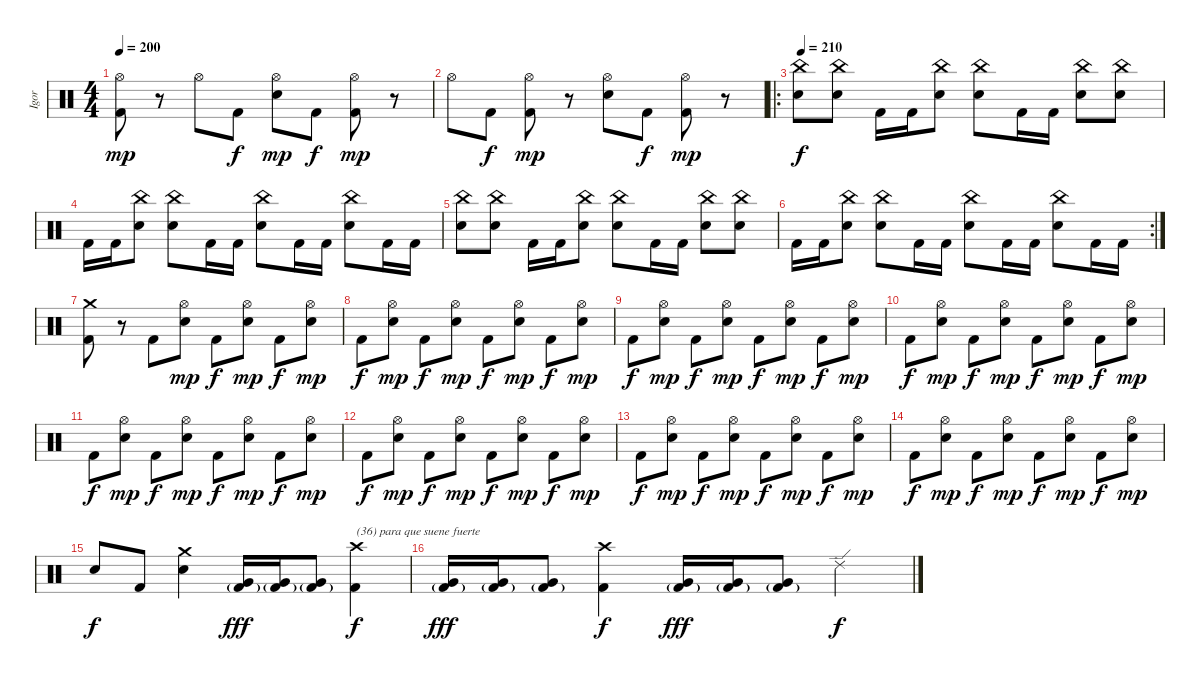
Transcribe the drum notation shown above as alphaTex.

\track ("Igor" "Igor") {instrument percussion}
\staff {score}
\articulation defaults
\ts (4 4)
\tempo 200
\clef neutral
\ks c
("Hi-Hat (open)" "Kick (hit) 2").8{dy mp} r.8 "Hi-Hat (open)".8 "Kick (hit) 2".8{dy f} ("Hi-Hat (open)" "Electric Snare (hit)").8{dy mp} "Kick (hit) 2".8{dy f} ("Hi-Hat (open)" "Kick (hit) 2").8{dy mp} r.8 |
"Hi-Hat (open)".8 "Kick (hit) 2".8{dy f} ("Hi-Hat (open)" "Kick (hit) 2").8{dy mp} r.8 ("Hi-Hat (open)" "Electric Snare (hit)").8 "Kick (hit) 2".8{dy f} ("Hi-Hat (open)" "Kick (hit) 2").8{dy mp} r.8 |
\ro
\tempo 210
("China (hit)" "Electric Snare (hit)").8{dy f} ("China (hit)" "Electric Snare (hit)").8 "Kick (hit) 2".16 "Kick (hit) 2".16 ("China (hit)" "Electric Snare (hit)").8 ("China (hit)" "Electric Snare (hit)").8 "Kick (hit) 2".16 "Kick (hit) 2".16 ("China (hit)" "Electric Snare (hit)").8 ("China (hit)" "Electric Snare (hit)").8 |
"Kick (hit) 2".16 "Kick (hit) 2".16 ("China (hit)" "Electric Snare (hit)").8 ("China (hit)" "Electric Snare (hit)").8 "Kick (hit) 2".16 "Kick (hit) 2".16 ("China (hit)" "Electric Snare (hit)").8 "Kick (hit) 2".16 "Kick (hit) 2".16 ("China (hit)" "Electric Snare (hit)").8 "Kick (hit) 2".16 "Kick (hit) 2".16 |
("China (hit)" "Electric Snare (hit)").8 ("China (hit)" "Electric Snare (hit)").8 "Kick (hit) 2".16 "Kick (hit) 2".16 ("China (hit)" "Electric Snare (hit)").8 ("China (hit)" "Electric Snare (hit)").8 "Kick (hit) 2".16 "Kick (hit) 2".16 ("China (hit)" "Electric Snare (hit)").8 ("China (hit)" "Electric Snare (hit)").8 |
\rc 2 "Kick (hit) 2".16 "Kick (hit) 2".16
("China (hit)" "Electric Snare (hit)").8 ("China (hit)" "Electric Snare (hit)").8 "Kick (hit) 2".16 "Kick (hit) 2".16 ("China (hit)" "Electric Snare (hit)").8 "Kick (hit) 2".16 "Kick (hit) 2".16 ("China (hit)" "Electric Snare (hit)").8 "Kick (hit) 2".16 "Kick (hit) 2".16 |
("Crash medium (hit)" "Kick (hit) 2").8 r.8 "Kick (hit) 2".8 ("Hi-Hat (open)" "Electric Snare (hit)").8{dy mp} "Kick (hit) 2".8{dy f} ("Hi-Hat (open)" "Electric Snare (hit)").8{dy mp} "Kick (hit) 2".8{dy f} ("Hi-Hat (open)" "Electric Snare (hit)").8{dy mp} |
"Kick (hit) 2".8{dy f} ("Hi-Hat (open)" "Electric Snare (hit)").8{dy mp} "Kick (hit) 2".8{dy f} ("Hi-Hat (open)" "Electric Snare (hit)").8{dy mp} "Kick (hit) 2".8{dy f} ("Hi-Hat (open)" "Electric Snare (hit)").8{dy mp} "Kick (hit) 2".8{dy f} ("Hi-Hat (open)" "Electric Snare (hit)").8{dy mp} |
"Kick (hit) 2".8{dy f} ("Hi-Hat (open)" "Electric Snare (hit)").8{dy mp} "Kick (hit) 2".8{dy f} ("Hi-Hat (open)" "Electric Snare (hit)").8{dy mp} "Kick (hit) 2".8{dy f} ("Hi-Hat (open)" "Electric Snare (hit)").8{dy mp} "Kick (hit) 2".8{dy f} ("Hi-Hat (open)" "Electric Snare (hit)").8{dy mp} |
"Kick (hit) 2".8{dy f} ("Hi-Hat (open)" "Electric Snare (hit)").8{dy mp} "Kick (hit) 2".8{dy f} ("Hi-Hat (open)" "Electric Snare (hit)").8{dy mp} "Kick (hit) 2".8{dy f} ("Hi-Hat (open)" "Electric Snare (hit)").8{dy mp} "Kick (hit) 2".8{dy f} ("Hi-Hat (open)" "Electric Snare (hit)").8{dy mp} |
"Kick (hit) 2".8{dy f} ("Hi-Hat (open)" "Electric Snare (hit)").8{dy mp} "Kick (hit) 2".8{dy f} ("Hi-Hat (open)" "Electric Snare (hit)").8{dy mp} "Kick (hit) 2".8{dy f} ("Hi-Hat (open)" "Electric Snare (hit)").8{dy mp} "Kick (hit) 2".8{dy f} ("Hi-Hat (open)" "Electric Snare (hit)").8{dy mp} |
"Kick (hit) 2".8{dy f} ("Hi-Hat (open)" "Electric Snare (hit)").8{dy mp} "Kick (hit) 2".8{dy f} ("Hi-Hat (open)" "Electric Snare (hit)").8{dy mp} "Kick (hit) 2".8{dy f} ("Hi-Hat (open)" "Electric Snare (hit)").8{dy mp} "Kick (hit) 2".8{dy f} ("Hi-Hat (open)" "Electric Snare (hit)").8{dy mp} |
"Kick (hit) 2".8{dy f} ("Hi-Hat (open)" "Electric Snare (hit)").8{dy mp} "Kick (hit) 2".8{dy f} ("Hi-Hat (open)" "Electric Snare (hit)").8{dy mp} "Kick (hit) 2".8{dy f} ("Hi-Hat (open)" "Electric Snare (hit)").8{dy mp} "Kick (hit) 2".8{dy f} ("Hi-Hat (open)" "Electric Snare (hit)").8{dy mp} |
"Kick (hit) 2".8{dy f} ("Hi-Hat (open)" "Electric Snare (hit)").8{dy mp} "Kick (hit) 2".8{dy f} ("Hi-Hat (open)" "Electric Snare (hit)").8{dy mp} "Kick (hit) 2".8{dy f} ("Hi-Hat (open)" "Electric Snare (hit)").8{dy mp} "Kick (hit) 2".8{dy f} ("Hi-Hat (open)" "Electric Snare (hit)").8{dy mp} |
"Electric Snare (hit)".8{dy f} "Kick (hit) 2".8 ("Crash medium (hit)" "Electric Snare (hit)").4 ("Very Low Tom (hit)" "Kick (hit) 2"{g}).16{dy fff} ("Very Low Tom (hit)" "Kick (hit) 2"{g}).16 ("Very Low Tom (hit)" "Kick (hit) 2"{g}).8 ("Crash high (hit)" "Kick (hit) 2").4{txt "(36) para que suene fuerte" dy f} |
("Very Low Tom (hit)" "Kick (hit) 2"{g}).16{dy fff} ("Very Low Tom (hit)" "Kick (hit) 2"{g}).16 ("Very Low Tom (hit)" "Kick (hit) 2"{g}).8 ("Crash high (hit)" "Kick (hit) 2").4{dy f} ("Very Low Tom (hit)" "Kick (hit) 2"{g}).16{dy fff} ("Very Low Tom (hit)" "Kick (hit) 2"{g}).16 ("Very Low Tom (hit)" "Kick (hit) 2"{g}).8 "Ride (edge) 2".4{dy f}
